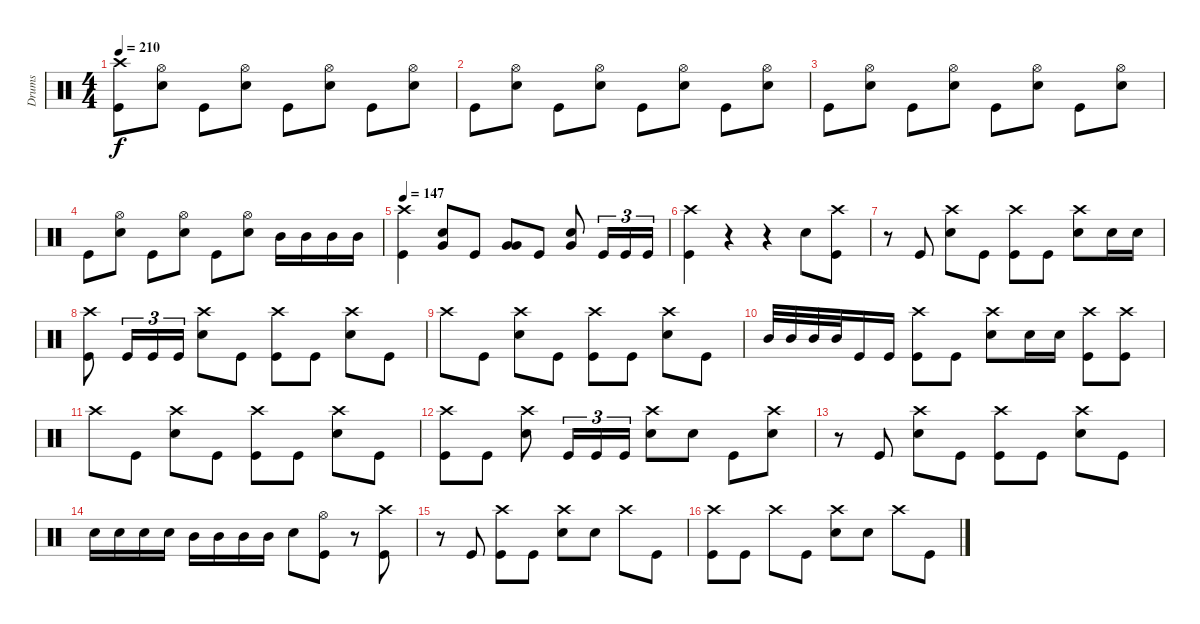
\track ("Drums" "Drums") {instrument percussion}
\staff {score}
\articulation defaults
\ts (4 4)
\tempo 210
\clef neutral
\ks c
("Crash high (hit)" "Kick (hit)").8{dy f} ("Hi-Hat (open)" "Electric Snare (hit)").8 "Kick (hit)".8 ("Electric Snare (hit)" "Hi-Hat (open)").8 "Kick (hit)".8 ("Electric Snare (hit)" "Hi-Hat (open)").8 "Kick (hit)".8 ("Electric Snare (hit)" "Hi-Hat (open)").8 |
"Kick (hit)".8 ("Electric Snare (hit)" "Hi-Hat (open)").8 "Kick (hit)".8 ("Electric Snare (hit)" "Hi-Hat (open)").8 "Kick (hit)".8 ("Electric Snare (hit)" "Hi-Hat (open)").8 "Kick (hit)".8 ("Electric Snare (hit)" "Hi-Hat (open)").8 |
"Kick (hit)".8 ("Electric Snare (hit)" "Hi-Hat (open)").8 "Kick (hit)".8 ("Electric Snare (hit)" "Hi-Hat (open)").8 "Kick (hit)".8 ("Electric Snare (hit)" "Hi-Hat (open)").8 "Kick (hit)".8 ("Electric Snare (hit)" "Hi-Hat (open)").8 |
"Kick (hit)".8 ("Electric Snare (hit)" "Hi-Hat (open)").8 "Kick (hit)".8 ("Electric Snare (hit)" "Hi-Hat (open)").8 "Kick (hit)".8 ("Electric Snare (hit)" "Hi-Hat (open)").8 "Mid Tom (hit)".16 "Mid Tom (hit)".16 "Mid Tom (hit)".16 "Mid Tom (hit)".16 |
\tempo 147
("Crash high (hit)" "Kick (hit)").4 ("Electric Snare (hit)" "Very Low Tom (hit)").8 "Kick (hit)".8 ("Very Low Tom (hit)" "Very Low Tom (hit)").8 "Kick (hit)".8 ("Electric Snare (hit)" "Very Low Tom (hit)").8 "Kick (hit)".16{tu (3 2)} "Kick (hit)".16{tu (3 2)} "Kick (hit)".16{tu (3 2)} |
("Crash high (hit)" "Kick (hit)").4 r.4 r.4 "Electric Snare (hit)".8 ("Kick (hit)" "Crash high (hit)").8 |
r.8 "Kick (hit)".8 ("Crash high (hit)" "Electric Snare (hit)").8 "Kick (hit)".8 ("Crash high (hit)" "Kick (hit)").8 "Kick (hit)".8 ("Crash high (hit)" "Electric Snare (hit)").8 "Electric Snare (hit)".16 "Electric Snare (hit)".16 |
("Kick (hit)" "Crash high (hit)").8 "Kick (hit)".16{tu (3 2)} "Kick (hit)".16{tu (3 2)} "Kick (hit)".16{tu (3 2)} ("Crash high (hit)" "Electric Snare (hit)").8 "Kick (hit)".8 ("Crash high (hit)" "Kick (hit)").8 "Kick (hit)".8 ("Crash high (hit)" "Electric Snare (hit)").8 "Kick (hit)".8 |
"Crash high (hit)".8 "Kick (hit)".8 ("Crash high (hit)" "Electric Snare (hit)").8 "Kick (hit)".8 ("Crash high (hit)" "Kick (hit)").8 "Kick (hit)".8 ("Crash high (hit)" "Electric Snare (hit)").8 "Kick (hit)".8 |
"Mid Tom (hit)".32 "Mid Tom (hit)".32 "Mid Tom (hit)".32 "Mid Tom (hit)".32 "Kick (hit)".16 "Kick (hit)".16 ("Crash high (hit)" "Kick (hit)").8 "Kick (hit)".8 ("Crash high (hit)" "Electric Snare (hit)").8 "Electric Snare (hit)".16 "Electric Snare (hit)".16 ("Crash high (hit)" "Kick (hit)").8 ("Crash high (hit)" "Kick (hit)").8 |
"Crash high (hit)".8 "Kick (hit)".8 ("Crash high (hit)" "Electric Snare (hit)").8 "Kick (hit)".8 ("Crash high (hit)" "Kick (hit)").8 "Kick (hit)".8 ("Crash high (hit)" "Electric Snare (hit)").8 "Kick (hit)".8 |
("Crash high (hit)" "Kick (hit)").8 "Kick (hit)".8 ("Crash high (hit)" "Electric Snare (hit)").8 "Kick (hit)".16{tu (3 2)} "Kick (hit)".16{tu (3 2)} "Kick (hit)".16{tu (3 2)} ("Crash high (hit)" "Electric Snare (hit)").8 "Electric Snare (hit)".8 "Kick (hit)".8 ("Crash high (hit)" "Electric Snare (hit)").8 |
r.8 "Kick (hit)".8 ("Crash high (hit)" "Electric Snare (hit)").8 "Kick (hit)".8 ("Crash high (hit)" "Kick (hit)").8 "Kick (hit)".8 ("Crash high (hit)" "Electric Snare (hit)").8 "Kick (hit)".8 |
"Electric Snare (hit)".16 "Electric Snare (hit)".16 "Electric Snare (hit)".16 "Electric Snare (hit)".16 "Mid Tom (hit)".16 "Mid Tom (hit)".16 "Mid Tom (hit)".16 "Mid Tom (hit)".16 "Electric Snare (hit)".8 ("Hi-Hat (open)" "Kick (hit)").8 r.8 ("Crash high (hit)" "Kick (hit)").8 |
r.8 "Kick (hit)".8 ("Crash high (hit)" "Kick (hit)").8 "Kick (hit)".8 ("Crash high (hit)" "Electric Snare (hit)").8 "Electric Snare (hit)".8 "Crash high (hit)".8 "Kick (hit)".8 |
("Crash high (hit)" "Kick (hit)").8 "Kick (hit)".8 "Crash high (hit)".8 "Kick (hit)".8 ("Crash high (hit)" "Electric Snare (hit)").8 "Electric Snare (hit)".8 "Crash high (hit)".8 "Kick (hit)".8
